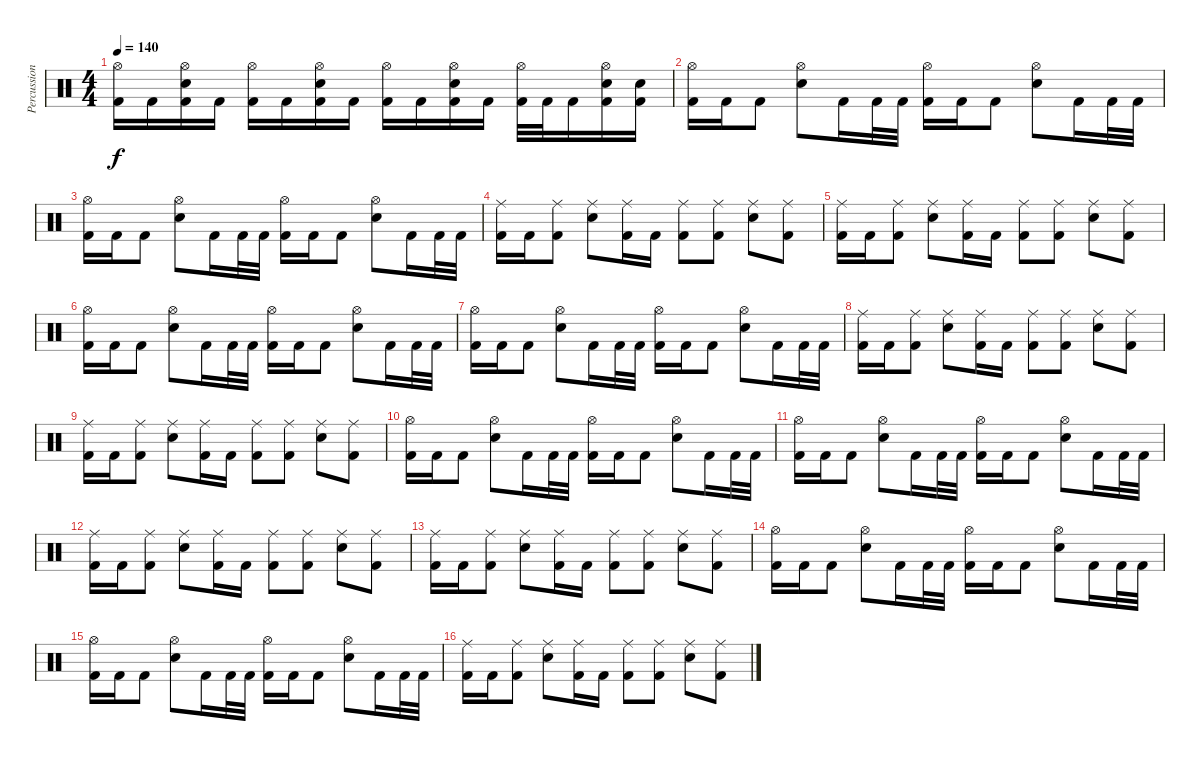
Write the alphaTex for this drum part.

\track ("Percussions" "Percussion") {instrument percussion}
\staff {score}
\articulation defaults
\ts (4 4)
\tempo 140
\clef neutral
\ks c
("Hi-Hat (open)" "Kick (hit) 2").16{dy f} "Kick (hit) 2".16 ("Hi-Hat (open)" "Electric Snare (hit)" "Kick (hit) 2").16 "Kick (hit) 2".16 ("Hi-Hat (open)" "Kick (hit) 2").16 "Kick (hit) 2".16 ("Hi-Hat (open)" "Electric Snare (hit)" "Kick (hit) 2").16 "Kick (hit) 2".16 ("Hi-Hat (open)" "Kick (hit) 2").16 "Kick (hit) 2".16 ("Hi-Hat (open)" "Electric Snare (hit)" "Kick (hit) 2").16 "Kick (hit) 2".16 ("Hi-Hat (open)" "Kick (hit) 2").32 "Kick (hit) 2".32 "Kick (hit) 2".16 ("Hi-Hat (open)" "Electric Snare (hit)" "Kick (hit) 2").16 ("Electric Snare (hit)" "Kick (hit) 2").16 |
("Hi-Hat (open)" "Kick (hit) 2").16 "Kick (hit) 2".16 "Kick (hit) 2".8 ("Hi-Hat (open)" "Electric Snare (hit)").8 "Kick (hit) 2".16 "Kick (hit) 2".32 "Kick (hit) 2".32 ("Hi-Hat (open)" "Kick (hit) 2").16 "Kick (hit) 2".16 "Kick (hit) 2".8 ("Hi-Hat (open)" "Electric Snare (hit)").8 "Kick (hit) 2".16 "Kick (hit) 2".32 "Kick (hit) 2".32 |
("Hi-Hat (open)" "Kick (hit) 2").16 "Kick (hit) 2".16 "Kick (hit) 2".8 ("Hi-Hat (open)" "Electric Snare (hit)").8 "Kick (hit) 2".16 "Kick (hit) 2".32 "Kick (hit) 2".32 ("Hi-Hat (open)" "Kick (hit) 2").16 "Kick (hit) 2".16 "Kick (hit) 2".8 ("Hi-Hat (open)" "Electric Snare (hit)").8 "Kick (hit) 2".16 "Kick (hit) 2".32 "Kick (hit) 2".32 |
("Ride (middle)" "Kick (hit) 2").16 "Kick (hit) 2".16 ("Ride (middle)" "Kick (hit) 2").8 ("Ride (middle)" "Electric Snare (hit)").8 ("Ride (middle)" "Kick (hit) 2").16 "Kick (hit) 2".16 ("Ride (middle)" "Kick (hit) 2").8 ("Ride (middle)" "Kick (hit) 2").8 ("Ride (middle)" "Electric Snare (hit)").8 ("Ride (middle)" "Kick (hit) 2").8 |
("Ride (middle)" "Kick (hit) 2").16 "Kick (hit) 2".16 ("Ride (middle)" "Kick (hit) 2").8 ("Ride (middle)" "Electric Snare (hit)").8 ("Ride (middle)" "Kick (hit) 2").16 "Kick (hit) 2".16 ("Ride (middle)" "Kick (hit) 2").8 ("Ride (middle)" "Kick (hit) 2").8 ("Ride (middle)" "Electric Snare (hit)").8 ("Ride (middle)" "Kick (hit) 2").8 |
("Hi-Hat (open)" "Kick (hit) 2").16 "Kick (hit) 2".16 "Kick (hit) 2".8 ("Hi-Hat (open)" "Electric Snare (hit)").8 "Kick (hit) 2".16 "Kick (hit) 2".32 "Kick (hit) 2".32 ("Hi-Hat (open)" "Kick (hit) 2").16 "Kick (hit) 2".16 "Kick (hit) 2".8 ("Hi-Hat (open)" "Electric Snare (hit)").8 "Kick (hit) 2".16 "Kick (hit) 2".32 "Kick (hit) 2".32 |
("Hi-Hat (open)" "Kick (hit) 2").16 "Kick (hit) 2".16 "Kick (hit) 2".8 ("Hi-Hat (open)" "Electric Snare (hit)").8 "Kick (hit) 2".16 "Kick (hit) 2".32 "Kick (hit) 2".32 ("Hi-Hat (open)" "Kick (hit) 2").16 "Kick (hit) 2".16 "Kick (hit) 2".8 ("Hi-Hat (open)" "Electric Snare (hit)").8 "Kick (hit) 2".16 "Kick (hit) 2".32 "Kick (hit) 2".32 |
("Ride (middle)" "Kick (hit) 2").16 "Kick (hit) 2".16 ("Ride (middle)" "Kick (hit) 2").8 ("Ride (middle)" "Electric Snare (hit)").8 ("Ride (middle)" "Kick (hit) 2").16 "Kick (hit) 2".16 ("Ride (middle)" "Kick (hit) 2").8 ("Ride (middle)" "Kick (hit) 2").8 ("Ride (middle)" "Electric Snare (hit)").8 ("Ride (middle)" "Kick (hit) 2").8 |
("Ride (middle)" "Kick (hit) 2").16 "Kick (hit) 2".16 ("Ride (middle)" "Kick (hit) 2").8 ("Ride (middle)" "Electric Snare (hit)").8 ("Ride (middle)" "Kick (hit) 2").16 "Kick (hit) 2".16 ("Ride (middle)" "Kick (hit) 2").8 ("Ride (middle)" "Kick (hit) 2").8 ("Ride (middle)" "Electric Snare (hit)").8 ("Ride (middle)" "Kick (hit) 2").8 |
("Hi-Hat (open)" "Kick (hit) 2").16 "Kick (hit) 2".16 "Kick (hit) 2".8 ("Hi-Hat (open)" "Electric Snare (hit)").8 "Kick (hit) 2".16 "Kick (hit) 2".32 "Kick (hit) 2".32 ("Hi-Hat (open)" "Kick (hit) 2").16 "Kick (hit) 2".16 "Kick (hit) 2".8 ("Hi-Hat (open)" "Electric Snare (hit)").8 "Kick (hit) 2".16 "Kick (hit) 2".32 "Kick (hit) 2".32 |
("Hi-Hat (open)" "Kick (hit) 2").16 "Kick (hit) 2".16 "Kick (hit) 2".8 ("Hi-Hat (open)" "Electric Snare (hit)").8 "Kick (hit) 2".16 "Kick (hit) 2".32 "Kick (hit) 2".32 ("Hi-Hat (open)" "Kick (hit) 2").16 "Kick (hit) 2".16 "Kick (hit) 2".8 ("Hi-Hat (open)" "Electric Snare (hit)").8 "Kick (hit) 2".16 "Kick (hit) 2".32 "Kick (hit) 2".32 |
("Ride (middle)" "Kick (hit) 2").16 "Kick (hit) 2".16 ("Ride (middle)" "Kick (hit) 2").8 ("Ride (middle)" "Electric Snare (hit)").8 ("Ride (middle)" "Kick (hit) 2").16 "Kick (hit) 2".16 ("Ride (middle)" "Kick (hit) 2").8 ("Ride (middle)" "Kick (hit) 2").8 ("Ride (middle)" "Electric Snare (hit)").8 ("Ride (middle)" "Kick (hit) 2").8 |
("Ride (middle)" "Kick (hit) 2").16 "Kick (hit) 2".16 ("Ride (middle)" "Kick (hit) 2").8 ("Ride (middle)" "Electric Snare (hit)").8 ("Ride (middle)" "Kick (hit) 2").16 "Kick (hit) 2".16 ("Ride (middle)" "Kick (hit) 2").8 ("Ride (middle)" "Kick (hit) 2").8 ("Ride (middle)" "Electric Snare (hit)").8 ("Ride (middle)" "Kick (hit) 2").8 |
("Hi-Hat (open)" "Kick (hit) 2").16 "Kick (hit) 2".16 "Kick (hit) 2".8 ("Hi-Hat (open)" "Electric Snare (hit)").8 "Kick (hit) 2".16 "Kick (hit) 2".32 "Kick (hit) 2".32 ("Hi-Hat (open)" "Kick (hit) 2").16 "Kick (hit) 2".16 "Kick (hit) 2".8 ("Hi-Hat (open)" "Electric Snare (hit)").8 "Kick (hit) 2".16 "Kick (hit) 2".32 "Kick (hit) 2".32 |
("Hi-Hat (open)" "Kick (hit) 2").16 "Kick (hit) 2".16 "Kick (hit) 2".8 ("Hi-Hat (open)" "Electric Snare (hit)").8 "Kick (hit) 2".16 "Kick (hit) 2".32 "Kick (hit) 2".32 ("Hi-Hat (open)" "Kick (hit) 2").16 "Kick (hit) 2".16 "Kick (hit) 2".8 ("Hi-Hat (open)" "Electric Snare (hit)").8 "Kick (hit) 2".16 "Kick (hit) 2".32 "Kick (hit) 2".32 |
("Ride (middle)" "Kick (hit) 2").16 "Kick (hit) 2".16 ("Ride (middle)" "Kick (hit) 2").8 ("Ride (middle)" "Electric Snare (hit)").8 ("Ride (middle)" "Kick (hit) 2").16 "Kick (hit) 2".16 ("Ride (middle)" "Kick (hit) 2").8 ("Ride (middle)" "Kick (hit) 2").8 ("Ride (middle)" "Electric Snare (hit)").8 ("Ride (middle)" "Kick (hit) 2").8
